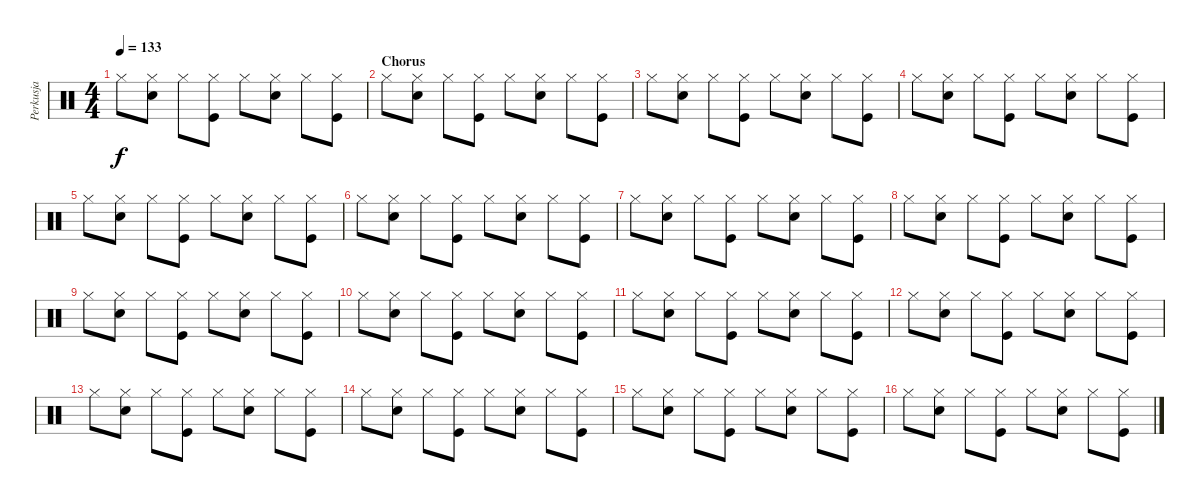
\track ("Perkusja" "Perkusja") {instrument percussion}
\staff {score}
\articulation defaults
\ts (4 4)
\tempo 133
\clef neutral
\ks c "Hi-Hat (closed)".8{dy f}
("Hi-Hat (closed)" "Snare (hit) 2").8 "Hi-Hat (closed)".8 ("Hi-Hat (closed)" "Kick (hit)").8 "Hi-Hat (closed)".8 ("Hi-Hat (closed)" "Snare (hit) 2").8 "Hi-Hat (closed)".8 ("Hi-Hat (closed)" "Kick (hit)").8 |
\section ("" "Chorus")
"Hi-Hat (closed)".8 ("Hi-Hat (closed)" "Snare (hit) 2").8 "Hi-Hat (closed)".8 ("Hi-Hat (closed)" "Kick (hit)").8 "Hi-Hat (closed)".8 ("Hi-Hat (closed)" "Snare (hit) 2").8 "Hi-Hat (closed)".8 ("Hi-Hat (closed)" "Kick (hit)").8 |
"Hi-Hat (closed)".8 ("Hi-Hat (closed)" "Snare (hit) 2").8 "Hi-Hat (closed)".8 ("Hi-Hat (closed)" "Kick (hit)").8 "Hi-Hat (closed)".8 ("Hi-Hat (closed)" "Snare (hit) 2").8 "Hi-Hat (closed)".8 ("Hi-Hat (closed)" "Kick (hit)").8 |
"Hi-Hat (closed)".8 ("Hi-Hat (closed)" "Snare (hit) 2").8 "Hi-Hat (closed)".8 ("Hi-Hat (closed)" "Kick (hit)").8 "Hi-Hat (closed)".8 ("Hi-Hat (closed)" "Snare (hit) 2").8 "Hi-Hat (closed)".8 ("Hi-Hat (closed)" "Kick (hit)").8 |
"Hi-Hat (closed)".8 ("Hi-Hat (closed)" "Snare (hit) 2").8 "Hi-Hat (closed)".8 ("Hi-Hat (closed)" "Kick (hit)").8 "Hi-Hat (closed)".8 ("Hi-Hat (closed)" "Snare (hit) 2").8 "Hi-Hat (closed)".8 ("Hi-Hat (closed)" "Kick (hit)").8 |
"Hi-Hat (closed)".8 ("Hi-Hat (closed)" "Snare (hit) 2").8 "Hi-Hat (closed)".8 ("Hi-Hat (closed)" "Kick (hit)").8 "Hi-Hat (closed)".8 ("Hi-Hat (closed)" "Snare (hit) 2").8 "Hi-Hat (closed)".8 ("Hi-Hat (closed)" "Kick (hit)").8 |
"Hi-Hat (closed)".8 ("Hi-Hat (closed)" "Snare (hit) 2").8 "Hi-Hat (closed)".8 ("Hi-Hat (closed)" "Kick (hit)").8 "Hi-Hat (closed)".8 ("Hi-Hat (closed)" "Snare (hit) 2").8 "Hi-Hat (closed)".8 ("Hi-Hat (closed)" "Kick (hit)").8 |
"Hi-Hat (closed)".8 ("Hi-Hat (closed)" "Snare (hit) 2").8 "Hi-Hat (closed)".8 ("Hi-Hat (closed)" "Kick (hit)").8 "Hi-Hat (closed)".8 ("Hi-Hat (closed)" "Snare (hit) 2").8 "Hi-Hat (closed)".8 ("Hi-Hat (closed)" "Kick (hit)").8 |
"Hi-Hat (closed)".8 ("Hi-Hat (closed)" "Snare (hit) 2").8 "Hi-Hat (closed)".8 ("Hi-Hat (closed)" "Kick (hit)").8 "Hi-Hat (closed)".8 ("Hi-Hat (closed)" "Snare (hit) 2").8 "Hi-Hat (closed)".8 ("Hi-Hat (closed)" "Kick (hit)").8 |
"Hi-Hat (closed)".8 ("Hi-Hat (closed)" "Snare (hit) 2").8 "Hi-Hat (closed)".8 ("Hi-Hat (closed)" "Kick (hit)").8 "Hi-Hat (closed)".8 ("Hi-Hat (closed)" "Snare (hit) 2").8 "Hi-Hat (closed)".8 ("Hi-Hat (closed)" "Kick (hit)").8 |
"Hi-Hat (closed)".8 ("Hi-Hat (closed)" "Snare (hit) 2").8 "Hi-Hat (closed)".8 ("Hi-Hat (closed)" "Kick (hit)").8 "Hi-Hat (closed)".8 ("Hi-Hat (closed)" "Snare (hit) 2").8 "Hi-Hat (closed)".8 ("Hi-Hat (closed)" "Kick (hit)").8 |
"Hi-Hat (closed)".8 ("Hi-Hat (closed)" "Snare (hit) 2").8 "Hi-Hat (closed)".8 ("Hi-Hat (closed)" "Kick (hit)").8 "Hi-Hat (closed)".8 ("Hi-Hat (closed)" "Snare (hit) 2").8 "Hi-Hat (closed)".8 ("Hi-Hat (closed)" "Kick (hit)").8 |
"Hi-Hat (closed)".8 ("Hi-Hat (closed)" "Snare (hit) 2").8 "Hi-Hat (closed)".8 ("Hi-Hat (closed)" "Kick (hit)").8 "Hi-Hat (closed)".8 ("Hi-Hat (closed)" "Snare (hit) 2").8 "Hi-Hat (closed)".8 ("Hi-Hat (closed)" "Kick (hit)").8 |
"Hi-Hat (closed)".8 ("Hi-Hat (closed)" "Snare (hit) 2").8 "Hi-Hat (closed)".8 ("Hi-Hat (closed)" "Kick (hit)").8 "Hi-Hat (closed)".8 ("Hi-Hat (closed)" "Snare (hit) 2").8 "Hi-Hat (closed)".8 ("Hi-Hat (closed)" "Kick (hit)").8 |
"Hi-Hat (closed)".8 ("Hi-Hat (closed)" "Snare (hit) 2").8 "Hi-Hat (closed)".8 ("Hi-Hat (closed)" "Kick (hit)").8 "Hi-Hat (closed)".8 ("Hi-Hat (closed)" "Snare (hit) 2").8 "Hi-Hat (closed)".8 ("Hi-Hat (closed)" "Kick (hit)").8 |
"Hi-Hat (closed)".8 ("Hi-Hat (closed)" "Snare (hit) 2").8 "Hi-Hat (closed)".8 ("Hi-Hat (closed)" "Kick (hit)").8 "Hi-Hat (closed)".8 ("Hi-Hat (closed)" "Snare (hit) 2").8 "Hi-Hat (closed)".8 ("Hi-Hat (closed)" "Kick (hit)").8
